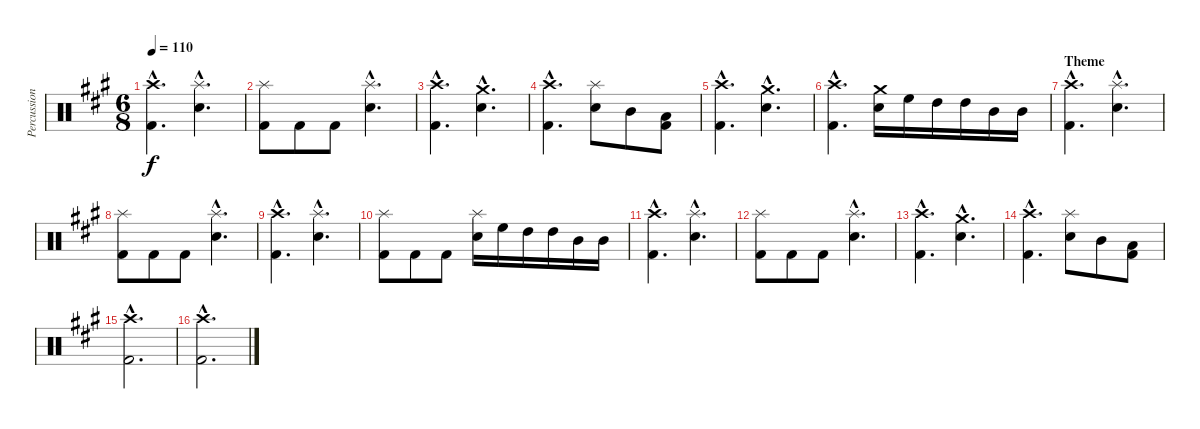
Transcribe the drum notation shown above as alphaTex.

\track ("Percussions" "Percussion") {instrument percussion}
\staff {score}
\articulation defaults
\ts (6 8)
\tempo 110
\clef neutral
\ks a
("Crash high (hit)"{hac} "Kick (hit) 2"{hac}).4{d dy f} ("Splash (hit)"{hac} "Electric Snare (hit)"{hac}).4{d} |
("Splash (hit)" "Kick (hit) 2").8 "Kick (hit) 2".8 "Kick (hit) 2".8 ("Splash (hit)"{hac} "Electric Snare (hit)"{hac}).4{d} |
("Crash high (hit)"{hac} "Kick (hit) 2"{hac}).4{d} ("Crash medium (hit)"{hac} "Electric Snare (hit)"{hac}).4{d} |
("Crash high (hit)"{hac} "Kick (hit) 2"{hac}).4{d} ("Splash (hit)" "Electric Snare (hit)").8 "Mid Tom (hit)".8 ("Low Tom (hit)" "Kick (hit) 2").8 |
("Crash high (hit)"{hac} "Kick (hit) 2"{hac}).4{d} ("Crash medium (hit)"{hac} "Electric Snare (hit)"{hac}).4{d} |
("Crash high (hit)"{hac} "Kick (hit) 2"{hac}).4{d} ("Crash medium (hit)" "Electric Snare (hit)").16 "High Floor Tom (hit)".16 "High Tom (hit)".16 "High Tom (hit)".16 "Mid Tom (hit)".16 "Mid Tom (hit)".16 |
\section ("" "Theme")
("Crash high (hit)"{hac} "Kick (hit) 2"{hac}).4{d} ("Splash (hit)"{hac} "Electric Snare (hit)"{hac}).4{d} |
("Splash (hit)" "Kick (hit) 2").8 "Kick (hit) 2".8 "Kick (hit) 2".8 ("Splash (hit)"{hac} "Electric Snare (hit)"{hac}).4{d} |
("Crash high (hit)"{hac} "Kick (hit) 2"{hac}).4{d} ("Splash (hit)"{hac} "Electric Snare (hit)"{hac}).4{d} |
("Splash (hit)" "Kick (hit) 2").8 "Kick (hit) 2".8 "Kick (hit) 2".8 ("Splash (hit)" "Electric Snare (hit)").16 "High Floor Tom (hit)".16 "High Tom (hit)".16 "High Tom (hit)".16 "Mid Tom (hit)".16 "Mid Tom (hit)".16 |
("Crash high (hit)"{hac} "Kick (hit) 2"{hac}).4{d} ("Splash (hit)"{hac} "Electric Snare (hit)"{hac}).4{d} |
("Splash (hit)" "Kick (hit) 2").8 "Kick (hit) 2".8 "Kick (hit) 2".8 ("Splash (hit)"{hac} "Electric Snare (hit)"{hac}).4{d} |
("Crash high (hit)"{hac} "Kick (hit) 2"{hac}).4{d} ("Crash medium (hit)"{hac} "Electric Snare (hit)"{hac}).4{d} |
("Crash high (hit)"{hac} "Kick (hit) 2"{hac}).4{d} ("Splash (hit)" "Electric Snare (hit)").8 "Mid Tom (hit)".8 ("Low Tom (hit)" "Kick (hit) 2").8 |
("Crash high (hit)"{hac} "Kick (hit) 2"{hac}).2{d} |
("Crash high (hit)"{hac} "Kick (hit) 2"{hac}).2{d}
